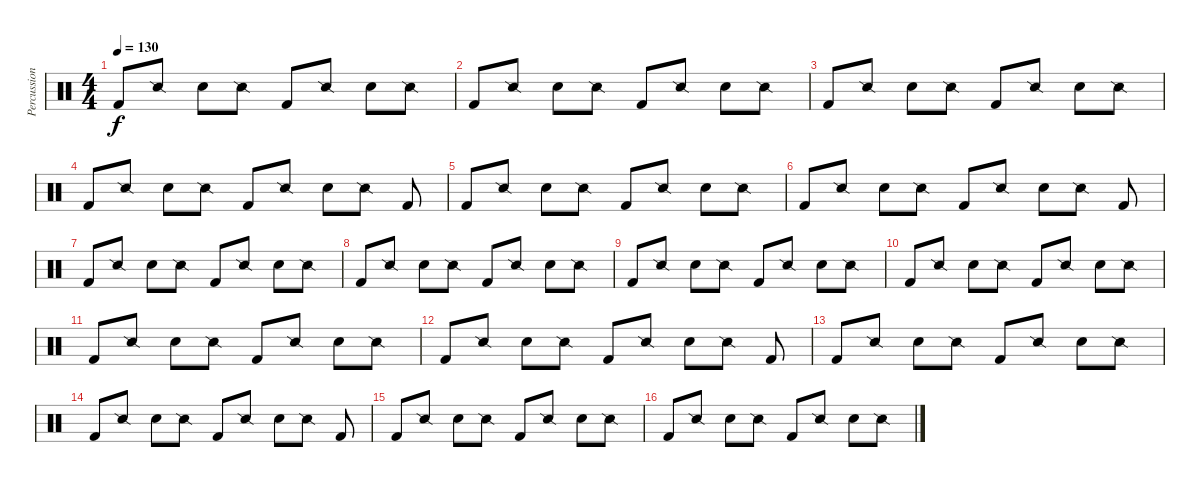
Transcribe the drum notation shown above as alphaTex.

\track ("Percussion" "Percussion") {instrument percussion}
\staff {score}
\articulation defaults
\ts (4 4)
\tempo 130
\clef neutral
\ks c "Kick (hit) 2".8{dy f} "Snare (side stick) 2".8 "Snare (hit) 2".8 "Snare (side stick) 2".8 "Kick (hit) 2".8 "Snare (side stick) 2".8 "Snare (hit) 2".8 "Snare (side stick) 2".8
|
"Kick (hit) 2".8 "Snare (side stick) 2".8 "Snare (hit) 2".8 "Snare (side stick) 2".8 "Kick (hit) 2".8 "Snare (side stick) 2".8 "Snare (hit) 2".8 "Snare (side stick) 2".8 |
"Kick (hit) 2".8 "Snare (side stick) 2".8 "Snare (hit) 2".8 "Snare (side stick) 2".8 "Kick (hit) 2".8 "Snare (side stick) 2".8 "Snare (hit) 2".8 "Snare (side stick) 2".8 |
"Kick (hit) 2".8 "Snare (side stick) 2".8 "Snare (hit) 2".8 "Snare (side stick) 2".8 "Kick (hit) 2".8 "Snare (side stick) 2".8 "Snare (hit) 2".8 "Snare (side stick) 2".8 "Kick (hit) 2".8 |
"Kick (hit) 2".8 "Snare (side stick) 2".8 "Snare (hit) 2".8 "Snare (side stick) 2".8 "Kick (hit) 2".8 "Snare (side stick) 2".8 "Snare (hit) 2".8 "Snare (side stick) 2".8 |
"Kick (hit) 2".8 "Snare (side stick) 2".8 "Snare (hit) 2".8 "Snare (side stick) 2".8 "Kick (hit) 2".8 "Snare (side stick) 2".8 "Snare (hit) 2".8 "Snare (side stick) 2".8 "Kick (hit) 2".8 |
"Kick (hit) 2".8 "Snare (side stick) 2".8 "Snare (hit) 2".8 "Snare (side stick) 2".8 "Kick (hit) 2".8 "Snare (side stick) 2".8 "Snare (hit) 2".8 "Snare (side stick) 2".8 |
"Kick (hit) 2".8 "Snare (side stick) 2".8 "Snare (hit) 2".8 "Snare (side stick) 2".8 "Kick (hit) 2".8 "Snare (side stick) 2".8 "Snare (hit) 2".8 "Snare (side stick) 2".8 |
"Kick (hit) 2".8 "Snare (side stick) 2".8 "Snare (hit) 2".8 "Snare (side stick) 2".8 "Kick (hit) 2".8 "Snare (side stick) 2".8 "Snare (hit) 2".8 "Snare (side stick) 2".8 |
"Kick (hit) 2".8 "Snare (side stick) 2".8 "Snare (hit) 2".8 "Snare (side stick) 2".8 "Kick (hit) 2".8 "Snare (side stick) 2".8 "Snare (hit) 2".8 "Snare (side stick) 2".8 |
"Kick (hit) 2".8 "Snare (side stick) 2".8 "Snare (hit) 2".8 "Snare (side stick) 2".8 "Kick (hit) 2".8 "Snare (side stick) 2".8 "Snare (hit) 2".8 "Snare (side stick) 2".8 |
"Kick (hit) 2".8 "Snare (side stick) 2".8 "Snare (hit) 2".8 "Snare (side stick) 2".8 "Kick (hit) 2".8 "Snare (side stick) 2".8 "Snare (hit) 2".8 "Snare (side stick) 2".8 "Kick (hit) 2".8 |
"Kick (hit) 2".8 "Snare (side stick) 2".8 "Snare (hit) 2".8 "Snare (side stick) 2".8 "Kick (hit) 2".8 "Snare (side stick) 2".8 "Snare (hit) 2".8 "Snare (side stick) 2".8 |
"Kick (hit) 2".8 "Snare (side stick) 2".8 "Snare (hit) 2".8 "Snare (side stick) 2".8 "Kick (hit) 2".8 "Snare (side stick) 2".8 "Snare (hit) 2".8 "Snare (side stick) 2".8 "Kick (hit) 2".8 |
"Kick (hit) 2".8 "Snare (side stick) 2".8 "Snare (hit) 2".8 "Snare (side stick) 2".8 "Kick (hit) 2".8 "Snare (side stick) 2".8 "Snare (hit) 2".8 "Snare (side stick) 2".8 |
"Kick (hit) 2".8 "Snare (side stick) 2".8 "Snare (hit) 2".8 "Snare (side stick) 2".8 "Kick (hit) 2".8 "Snare (side stick) 2".8 "Snare (hit) 2".8 "Snare (side stick) 2".8
